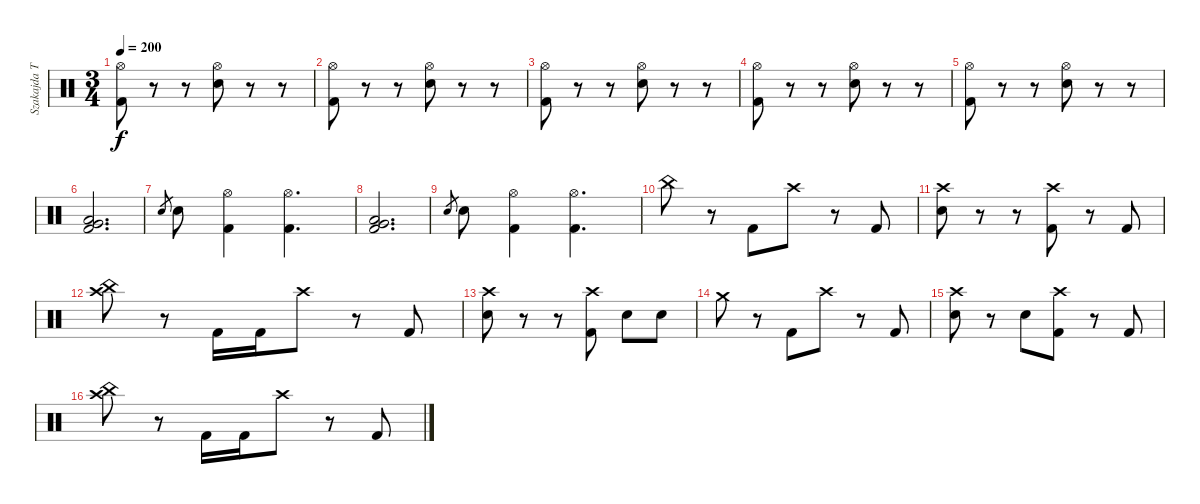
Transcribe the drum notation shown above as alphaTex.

\track ("Szakajda Tibi" "Szakajda T") {instrument percussion}
\staff {score}
\articulation defaults
\ts (3 4)
\tempo 200
\clef neutral
\ks c
("Hi-Hat (open)" "Kick (hit) 2").8{dy f} r.8 r.8 ("Hi-Hat (open)" "Electric Snare (hit)").8 r.8 r.8 |
("Hi-Hat (open)" "Kick (hit) 2").8 r.8 r.8 ("Hi-Hat (open)" "Electric Snare (hit)").8 r.8 r.8 |
("Hi-Hat (open)" "Kick (hit) 2").8 r.8 r.8 ("Hi-Hat (open)" "Electric Snare (hit)").8 r.8 r.8 |
("Hi-Hat (open)" "Kick (hit) 2").8 r.8 r.8 ("Hi-Hat (open)" "Electric Snare (hit)").8 r.8 r.8 |
("Hi-Hat (open)" "Kick (hit) 2").8 r.8 r.8 ("Hi-Hat (open)" "Electric Snare (hit)").8 r.8 r.8 |
("Low Floor Tom (hit)" "Very Low Tom (hit)" "Kick (hit) 2").2{d} |
"Electric Snare (hit)".8{gr} "Electric Snare (hit)".8 ("Hi-Hat (open)" "Kick (hit) 2").4 ("Hi-Hat (open)" "Kick (hit) 2").4{d} |
("Low Floor Tom (hit)" "Very Low Tom (hit)" "Kick (hit) 2").2{d} |
"Electric Snare (hit)".8{gr} "Electric Snare (hit)".8 ("Hi-Hat (open)" "Kick (hit) 2").4 ("Hi-Hat (open)" "Kick (hit) 2").4{d} |
"China (hit)".8 r.8 "Kick (hit) 2".8 "Crash high (hit)".8 r.8 "Kick (hit) 2".8 |
("Crash high (hit)" "Electric Snare (hit)").8 r.8 r.8 ("Crash high (hit)" "Kick (hit) 2").8 r.8 "Kick (hit) 2".8 |
("China (hit)" "Crash high (hit)").8 r.8 "Kick (hit) 2".16 "Kick (hit) 2".16 "Crash high (hit)".8 r.8 "Kick (hit) 2".8 |
("Crash high (hit)" "Electric Snare (hit)").8 r.8 r.8 ("Crash high (hit)" "Kick (hit) 2").8 "Electric Snare (hit)".8 "Electric Snare (hit)".8 |
"Crash medium (hit)".8 r.8 "Kick (hit) 2".8 "Crash high (hit)".8 r.8 "Kick (hit) 2".8 |
("Crash high (hit)" "Electric Snare (hit)").8 r.8 "Electric Snare (hit)".8 ("Crash high (hit)" "Kick (hit) 2").8 r.8 "Kick (hit) 2".8 |
("China (hit)" "Crash high (hit)").8 r.8 "Kick (hit) 2".16 "Kick (hit) 2".16 "Crash high (hit)".8 r.8 "Kick (hit) 2".8
